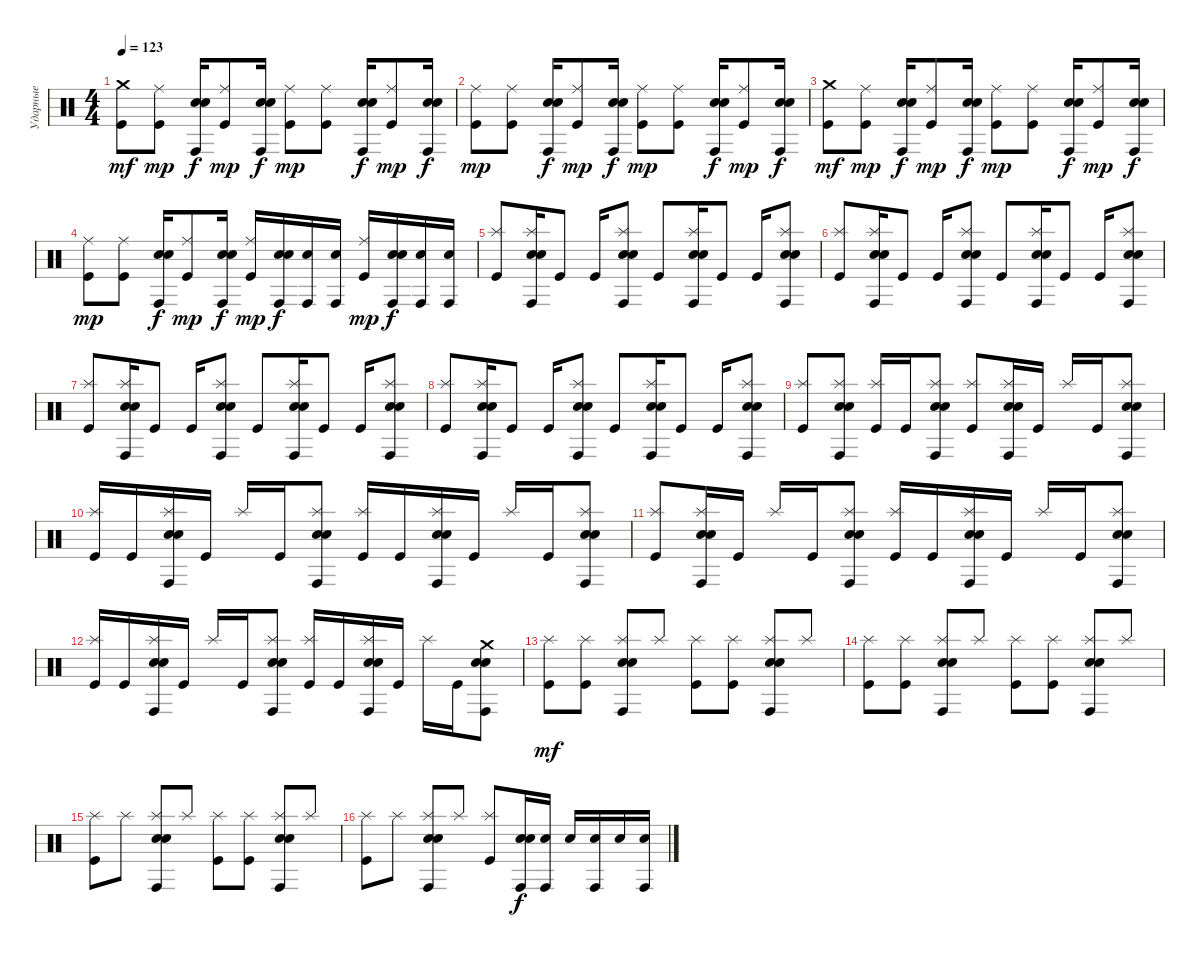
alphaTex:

\track ("Ударные" "Ударные") {instrument percussion}
\staff {score}
\articulation defaults
\ts (4 4)
\tempo 123
\clef neutral
\ks c
("Crash medium (hit)" "Kick (hit)").8{dy mf} ("Ride (middle)" "Kick (hit)").8{dy mp} ("Conga high (hit)" "Electric Snare (hit)" "Snare (hit) 2").16{dy f} ("Ride (middle)" "Kick (hit)").8{dy mp} ("Conga high (hit)" "Electric Snare (hit)" "Snare (hit) 2").16{dy f} ("Ride (middle)" "Kick (hit)").8{dy mp} ("Ride (middle)" "Kick (hit)").8 ("Conga high (hit)" "Electric Snare (hit)" "Snare (hit) 2").16{dy f} ("Ride (middle)" "Kick (hit)").8{dy mp} ("Conga high (hit)" "Electric Snare (hit)" "Snare (hit) 2").16{dy f} |
("Ride (middle)" "Kick (hit)").8{dy mp} ("Ride (middle)" "Kick (hit)").8 ("Conga high (hit)" "Electric Snare (hit)" "Snare (hit) 2").16{dy f} ("Ride (middle)" "Kick (hit)").8{dy mp} ("Conga high (hit)" "Electric Snare (hit)" "Snare (hit) 2").16{dy f} ("Ride (middle)" "Kick (hit)").8{dy mp} ("Ride (middle)" "Kick (hit)").8 ("Conga high (hit)" "Electric Snare (hit)" "Snare (hit) 2").16{dy f} ("Ride (middle)" "Kick (hit)").8{dy mp} ("Conga high (hit)" "Electric Snare (hit)" "Snare (hit) 2").16{dy f} |
("Crash medium (hit)" "Kick (hit)").8{dy mf} ("Ride (middle)" "Kick (hit)").8{dy mp} ("Conga high (hit)" "Electric Snare (hit)" "Snare (hit) 2").16{dy f} ("Ride (middle)" "Kick (hit)").8{dy mp} ("Conga high (hit)" "Electric Snare (hit)" "Snare (hit) 2").16{dy f} ("Ride (middle)" "Kick (hit)").8{dy mp} ("Ride (middle)" "Kick (hit)").8 ("Conga high (hit)" "Electric Snare (hit)" "Snare (hit) 2").16{dy f} ("Ride (middle)" "Kick (hit)").8{dy mp} ("Conga high (hit)" "Electric Snare (hit)" "Snare (hit) 2").16{dy f} |
("Ride (middle)" "Kick (hit)").8{dy mp} ("Ride (middle)" "Kick (hit)").8 ("Conga high (hit)" "Electric Snare (hit)" "Snare (hit) 2").16{dy f} ("Ride (middle)" "Kick (hit)").8{dy mp} ("Conga high (hit)" "Electric Snare (hit)" "Snare (hit) 2").16{dy f} ("Ride (middle)" "Kick (hit)").16{dy mp} ("Conga high (hit)" "Electric Snare (hit)" "Snare (hit) 2").16{dy f} ("Conga high (hit)" "Electric Snare (hit)").16 ("Conga high (hit)" "Electric Snare (hit)").16 ("Ride (middle)" "Kick (hit)").16{dy mp} ("Conga high (hit)" "Electric Snare (hit)" "Snare (hit) 2").16{dy f} ("Conga high (hit)" "Electric Snare (hit)").16 ("Conga high (hit)" "Electric Snare (hit)").16 |
("Splash (hit)" "Kick (hit)").8 ("Splash (hit)" "Conga high (hit)" "Electric Snare (hit)" "Snare (hit) 2").16 "Kick (hit)".8 "Kick (hit)".16 ("Splash (hit)" "Conga high (hit)" "Electric Snare (hit)" "Snare (hit) 2").8 "Kick (hit)".8 ("Splash (hit)" "Conga high (hit)" "Electric Snare (hit)" "Snare (hit) 2").16 "Kick (hit)".8 "Kick (hit)".16 ("Splash (hit)" "Conga high (hit)" "Electric Snare (hit)" "Snare (hit) 2").8 |
("Splash (hit)" "Kick (hit)").8 ("Splash (hit)" "Conga high (hit)" "Electric Snare (hit)" "Snare (hit) 2").16 "Kick (hit)".8 "Kick (hit)".16 ("Splash (hit)" "Conga high (hit)" "Electric Snare (hit)" "Snare (hit) 2").8 "Kick (hit)".8 ("Splash (hit)" "Conga high (hit)" "Electric Snare (hit)" "Snare (hit) 2").16 "Kick (hit)".8 "Kick (hit)".16 ("Splash (hit)" "Conga high (hit)" "Electric Snare (hit)" "Snare (hit) 2").8 |
("Splash (hit)" "Kick (hit)").8 ("Splash (hit)" "Conga high (hit)" "Electric Snare (hit)" "Snare (hit) 2").16 "Kick (hit)".8 "Kick (hit)".16 ("Splash (hit)" "Conga high (hit)" "Electric Snare (hit)" "Snare (hit) 2").8 "Kick (hit)".8 ("Splash (hit)" "Conga high (hit)" "Electric Snare (hit)" "Snare (hit) 2").16 "Kick (hit)".8 "Kick (hit)".16 ("Splash (hit)" "Conga high (hit)" "Electric Snare (hit)" "Snare (hit) 2").8 |
("Splash (hit)" "Kick (hit)").8 ("Splash (hit)" "Conga high (hit)" "Electric Snare (hit)" "Snare (hit) 2").16 "Kick (hit)".8 "Kick (hit)".16 ("Splash (hit)" "Conga high (hit)" "Electric Snare (hit)" "Snare (hit) 2").8 "Kick (hit)".8 ("Splash (hit)" "Conga high (hit)" "Electric Snare (hit)" "Snare (hit) 2").16 "Kick (hit)".8 "Kick (hit)".16 ("Splash (hit)" "Conga high (hit)" "Electric Snare (hit)" "Snare (hit) 2").8 |
("Splash (hit)" "Kick (hit)").8 ("Splash (hit)" "Conga high (hit)" "Electric Snare (hit)" "Snare (hit) 2").8 ("Splash (hit)" "Kick (hit)").16 "Kick (hit)".16 ("Splash (hit)" "Conga high (hit)" "Electric Snare (hit)" "Snare (hit) 2").8 ("Splash (hit)" "Kick (hit)").8 ("Splash (hit)" "Conga high (hit)" "Electric Snare (hit)" "Snare (hit) 2").16 "Kick (hit)".16 "Splash (hit)".16 "Kick (hit)".16 ("Splash (hit)" "Conga high (hit)" "Electric Snare (hit)" "Snare (hit) 2").8 |
("Splash (hit)" "Kick (hit)").16 "Kick (hit)".16 ("Splash (hit)" "Conga high (hit)" "Electric Snare (hit)" "Snare (hit) 2").16 "Kick (hit)".16 "Splash (hit)".16 "Kick (hit)".16 ("Splash (hit)" "Conga high (hit)" "Electric Snare (hit)" "Snare (hit) 2").8 ("Splash (hit)" "Kick (hit)").16 "Kick (hit)".16 ("Splash (hit)" "Conga high (hit)" "Electric Snare (hit)" "Snare (hit) 2").16 "Kick (hit)".16 "Splash (hit)".16 "Kick (hit)".16 ("Splash (hit)" "Conga high (hit)" "Electric Snare (hit)" "Snare (hit) 2").8 |
("Splash (hit)" "Kick (hit)").8 ("Splash (hit)" "Conga high (hit)" "Electric Snare (hit)" "Snare (hit) 2").16 "Kick (hit)".16 "Splash (hit)".16 "Kick (hit)".16 ("Splash (hit)" "Conga high (hit)" "Electric Snare (hit)" "Snare (hit) 2").8 ("Splash (hit)" "Kick (hit)").16 "Kick (hit)".16 ("Splash (hit)" "Conga high (hit)" "Electric Snare (hit)" "Snare (hit) 2").16 "Kick (hit)".16 "Splash (hit)".16 "Kick (hit)".16 ("Splash (hit)" "Conga high (hit)" "Electric Snare (hit)" "Snare (hit) 2").8 |
("Splash (hit)" "Kick (hit)").16 "Kick (hit)".16 ("Splash (hit)" "Conga high (hit)" "Electric Snare (hit)" "Snare (hit) 2").16 "Kick (hit)".16 "Splash (hit)".16 "Kick (hit)".16 ("Splash (hit)" "Conga high (hit)" "Electric Snare (hit)" "Snare (hit) 2").8 ("Splash (hit)" "Kick (hit)").16 "Kick (hit)".16 ("Splash (hit)" "Conga high (hit)" "Electric Snare (hit)" "Snare (hit) 2").16 "Kick (hit)".16 "Splash (hit)".16 "Kick (hit)".16 ("Crash medium (hit)" "Conga high (hit)" "Electric Snare (hit)" "Snare (hit) 2").8 |
("Splash (hit)" "Kick (hit)").8{dy mf} ("Splash (hit)" "Kick (hit)").8 ("Splash (hit)" "Conga high (hit)" "Electric Snare (hit)" "Snare (hit) 2").8 "Splash (hit)".8 ("Splash (hit)" "Kick (hit)").8 ("Splash (hit)" "Kick (hit)").8 ("Splash (hit)" "Conga high (hit)" "Electric Snare (hit)" "Snare (hit) 2").8 "Splash (hit)".8 |
("Splash (hit)" "Kick (hit)").8 ("Splash (hit)" "Kick (hit)").8 ("Splash (hit)" "Conga high (hit)" "Electric Snare (hit)" "Snare (hit) 2").8 "Splash (hit)".8 ("Splash (hit)" "Kick (hit)").8 ("Splash (hit)" "Kick (hit)").8 ("Splash (hit)" "Conga high (hit)" "Electric Snare (hit)" "Snare (hit) 2").8 "Splash (hit)".8 |
("Splash (hit)" "Kick (hit)").8 "Splash (hit)".8 ("Splash (hit)" "Conga high (hit)" "Electric Snare (hit)" "Snare (hit) 2").8 "Splash (hit)".8 ("Splash (hit)" "Kick (hit)").8 ("Splash (hit)" "Kick (hit)").8 ("Splash (hit)" "Conga high (hit)" "Electric Snare (hit)" "Snare (hit) 2").8 "Splash (hit)".8 |
("Splash (hit)" "Kick (hit)").8 "Splash (hit)".8 ("Splash (hit)" "Conga high (hit)" "Electric Snare (hit)" "Snare (hit) 2").8 "Splash (hit)".8 ("Splash (hit)" "Kick (hit)").8 ("Conga high (hit)" "Electric Snare (hit)" "Snare (hit) 2").16{dy f} ("Conga high (hit)" "Electric Snare (hit)").16 "Electric Snare (hit)".16 ("Conga high (hit)" "Electric Snare (hit)").16 "Electric Snare (hit)".16 ("Conga high (hit)" "Electric Snare (hit)").16
